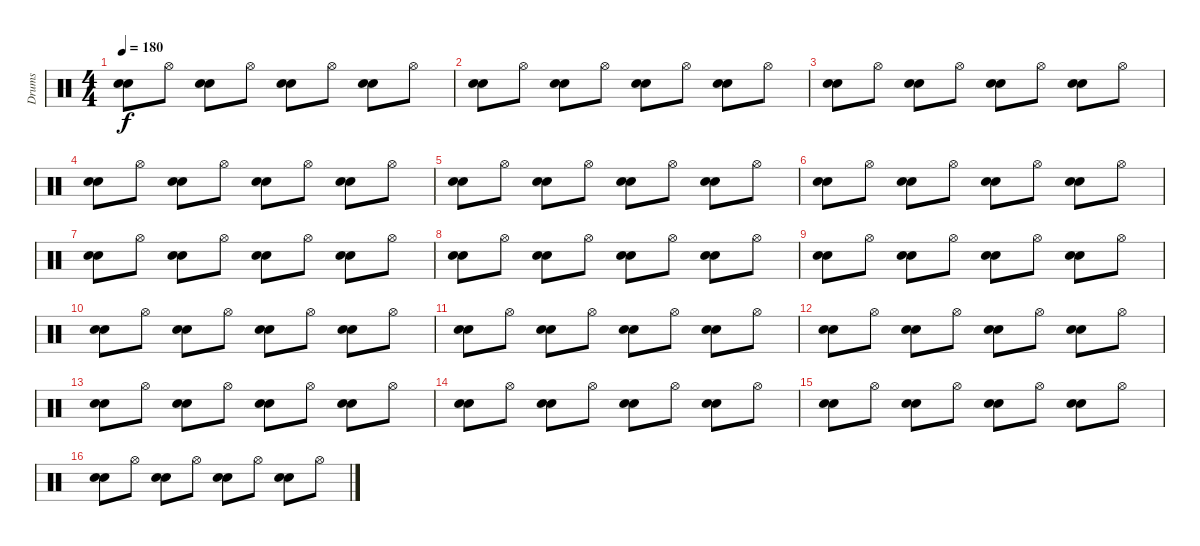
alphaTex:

\track ("Drums" "Drums") {instrument percussion}
\staff {score}
\articulation defaults
\ts (4 4)
\tempo 180
\clef neutral
\ks c
("Electric Snare (hit)" "Snare (hit) 2").8{dy f} "Hi-Hat (open)".8 ("Electric Snare (hit)" "Snare (hit) 2").8 "Hi-Hat (open)".8 ("Electric Snare (hit)" "Snare (hit) 2").8 "Hi-Hat (open)".8 ("Electric Snare (hit)" "Snare (hit) 2").8 "Hi-Hat (open)".8 |
("Electric Snare (hit)" "Snare (hit) 2").8 "Hi-Hat (open)".8 ("Electric Snare (hit)" "Snare (hit) 2").8 "Hi-Hat (open)".8 ("Electric Snare (hit)" "Snare (hit) 2").8 "Hi-Hat (open)".8 ("Electric Snare (hit)" "Snare (hit) 2").8 "Hi-Hat (open)".8 |
("Electric Snare (hit)" "Snare (hit) 2").8 "Hi-Hat (open)".8 ("Electric Snare (hit)" "Snare (hit) 2").8 "Hi-Hat (open)".8 ("Electric Snare (hit)" "Snare (hit) 2").8 "Hi-Hat (open)".8 ("Electric Snare (hit)" "Snare (hit) 2").8 "Hi-Hat (open)".8 |
("Electric Snare (hit)" "Snare (hit) 2").8 "Hi-Hat (open)".8 ("Electric Snare (hit)" "Snare (hit) 2").8 "Hi-Hat (open)".8 ("Electric Snare (hit)" "Snare (hit) 2").8 "Hi-Hat (open)".8 ("Electric Snare (hit)" "Snare (hit) 2").8 "Hi-Hat (open)".8 |
("Electric Snare (hit)" "Snare (hit) 2").8 "Hi-Hat (open)".8 ("Electric Snare (hit)" "Snare (hit) 2").8 "Hi-Hat (open)".8 ("Electric Snare (hit)" "Snare (hit) 2").8 "Hi-Hat (open)".8 ("Electric Snare (hit)" "Snare (hit) 2").8 "Hi-Hat (open)".8 |
("Electric Snare (hit)" "Snare (hit) 2").8 "Hi-Hat (open)".8 ("Electric Snare (hit)" "Snare (hit) 2").8 "Hi-Hat (open)".8 ("Electric Snare (hit)" "Snare (hit) 2").8 "Hi-Hat (open)".8 ("Electric Snare (hit)" "Snare (hit) 2").8 "Hi-Hat (open)".8 |
("Electric Snare (hit)" "Snare (hit) 2").8 "Hi-Hat (open)".8 ("Electric Snare (hit)" "Snare (hit) 2").8 "Hi-Hat (open)".8 ("Electric Snare (hit)" "Snare (hit) 2").8 "Hi-Hat (open)".8 ("Electric Snare (hit)" "Snare (hit) 2").8 "Hi-Hat (open)".8 |
("Electric Snare (hit)" "Snare (hit) 2").8 "Hi-Hat (open)".8 ("Electric Snare (hit)" "Snare (hit) 2").8 "Hi-Hat (open)".8 ("Electric Snare (hit)" "Snare (hit) 2").8 "Hi-Hat (open)".8 ("Electric Snare (hit)" "Snare (hit) 2").8 "Hi-Hat (open)".8 |
("Electric Snare (hit)" "Snare (hit) 2").8 "Hi-Hat (open)".8 ("Electric Snare (hit)" "Snare (hit) 2").8 "Hi-Hat (open)".8 ("Electric Snare (hit)" "Snare (hit) 2").8 "Hi-Hat (open)".8 ("Electric Snare (hit)" "Snare (hit) 2").8 "Hi-Hat (open)".8 |
("Electric Snare (hit)" "Snare (hit) 2").8 "Hi-Hat (open)".8 ("Electric Snare (hit)" "Snare (hit) 2").8 "Hi-Hat (open)".8 ("Electric Snare (hit)" "Snare (hit) 2").8 "Hi-Hat (open)".8 ("Electric Snare (hit)" "Snare (hit) 2").8 "Hi-Hat (open)".8 |
("Electric Snare (hit)" "Snare (hit) 2").8 "Hi-Hat (open)".8 ("Electric Snare (hit)" "Snare (hit) 2").8 "Hi-Hat (open)".8 ("Electric Snare (hit)" "Snare (hit) 2").8 "Hi-Hat (open)".8 ("Electric Snare (hit)" "Snare (hit) 2").8 "Hi-Hat (open)".8 |
("Electric Snare (hit)" "Snare (hit) 2").8 "Hi-Hat (open)".8 ("Electric Snare (hit)" "Snare (hit) 2").8 "Hi-Hat (open)".8 ("Electric Snare (hit)" "Snare (hit) 2").8 "Hi-Hat (open)".8 ("Electric Snare (hit)" "Snare (hit) 2").8 "Hi-Hat (open)".8 |
("Electric Snare (hit)" "Snare (hit) 2").8 "Hi-Hat (open)".8 ("Electric Snare (hit)" "Snare (hit) 2").8 "Hi-Hat (open)".8 ("Electric Snare (hit)" "Snare (hit) 2").8 "Hi-Hat (open)".8 ("Electric Snare (hit)" "Snare (hit) 2").8 "Hi-Hat (open)".8 |
("Electric Snare (hit)" "Snare (hit) 2").8 "Hi-Hat (open)".8 ("Electric Snare (hit)" "Snare (hit) 2").8 "Hi-Hat (open)".8 ("Electric Snare (hit)" "Snare (hit) 2").8 "Hi-Hat (open)".8 ("Electric Snare (hit)" "Snare (hit) 2").8 "Hi-Hat (open)".8 |
("Electric Snare (hit)" "Snare (hit) 2").8 "Hi-Hat (open)".8 ("Electric Snare (hit)" "Snare (hit) 2").8 "Hi-Hat (open)".8 ("Electric Snare (hit)" "Snare (hit) 2").8 "Hi-Hat (open)".8 ("Electric Snare (hit)" "Snare (hit) 2").8 "Hi-Hat (open)".8 |
("Electric Snare (hit)" "Snare (hit) 2").8 "Hi-Hat (open)".8 ("Electric Snare (hit)" "Snare (hit) 2").8 "Hi-Hat (open)".8 ("Electric Snare (hit)" "Snare (hit) 2").8 "Hi-Hat (open)".8 ("Electric Snare (hit)" "Snare (hit) 2").8 "Hi-Hat (open)".8
